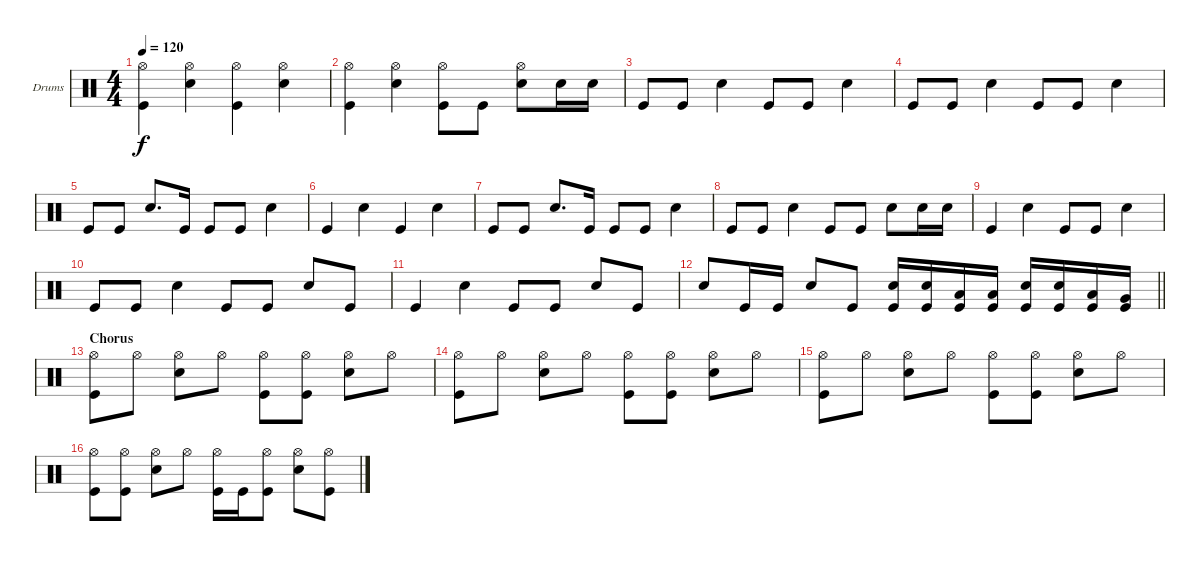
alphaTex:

\bracketExtendMode groupsimilarinstruments
\firstSystemTrackNameOrientation horizontal
\otherSystemsTrackNameOrientation horizontal
\track ("Drumkit" "Drums") {instrument percussion}
\staff {score}
\articulation defaults
\ts (4 4)
\tempo 120
\clef neutral
\ks c
("Kick (hit)" "Hi-Hat (open)").4{dy f} ("Snare (hit) 2" "Hi-Hat (open)").4 ("Kick (hit)" "Hi-Hat (open)").4 ("Snare (hit) 2" "Hi-Hat (open)").4 |
("Kick (hit)" "Hi-Hat (open)").4 ("Snare (hit) 2" "Hi-Hat (open)").4 ("Kick (hit)" "Hi-Hat (open)").8 "Kick (hit)".8 ("Snare (hit) 2" "Hi-Hat (open)").8 "Snare (hit) 2".16 "Snare (hit) 2".16 |
"Kick (hit)".8 "Kick (hit)".8 "Snare (hit) 2".4 "Kick (hit)".8 "Kick (hit)".8 "Snare (hit) 2".4 |
"Kick (hit)".8 "Kick (hit)".8 "Snare (hit) 2".4 "Kick (hit)".8 "Kick (hit)".8 "Snare (hit) 2".4 |
"Kick (hit)".8 "Kick (hit)".8 "Snare (hit) 2".8{d} "Kick (hit)".16 "Kick (hit)".8 "Kick (hit)".8 "Snare (hit) 2".4 |
"Kick (hit)".4 "Snare (hit) 2".4 "Kick (hit)".4 "Snare (hit) 2".4 |
"Kick (hit)".8 "Kick (hit)".8 "Snare (hit) 2".8{d} "Kick (hit)".16 "Kick (hit)".8 "Kick (hit)".8 "Snare (hit) 2".4 |
"Kick (hit)".8 "Kick (hit)".8 "Snare (hit) 2".4 "Kick (hit)".8 "Kick (hit)".8 "Snare (hit) 2".8 "Snare (hit) 2".16 "Snare (hit) 2".16 |
"Kick (hit)".4 "Snare (hit) 2".4 "Kick (hit)".8 "Kick (hit)".8 "Snare (hit) 2".4 |
"Kick (hit)".8 "Kick (hit)".8 "Snare (hit) 2".4 "Kick (hit)".8 "Kick (hit)".8 "Snare (hit) 2".8 "Kick (hit)".8 |
"Kick (hit)".4 "Snare (hit) 2".4 "Kick (hit)".8 "Kick (hit)".8 "Snare (hit) 2".8 "Kick (hit)".8 |
\barLineRight lightlight "Snare (hit) 2".8 "Kick (hit)".16 "Kick (hit)".16 "Snare (hit) 2".8 "Kick (hit)".8
("Kick (hit)" "Snare (hit) 2").16 ("Kick (hit)" "Snare (hit) 2").16 ("Kick (hit)" "Low Tom (hit)").16 ("Kick (hit)" "Low Tom (hit)").16 ("Kick (hit)" "Snare (hit) 2").16 ("Kick (hit)" "Snare (hit) 2").16 ("Kick (hit)" "Low Tom (hit)").16 ("Kick (hit)" "Very Low Tom (hit)").16 |
\section ("" "Chorus")
("Kick (hit)" "Hi-Hat (open)").8 "Hi-Hat (open)".8 ("Snare (hit) 2" "Hi-Hat (open)").8 "Hi-Hat (open)".8 ("Kick (hit)" "Hi-Hat (open)").8 ("Kick (hit)" "Hi-Hat (open)").8 ("Snare (hit) 2" "Hi-Hat (open)").8 "Hi-Hat (open)".8 |
("Kick (hit)" "Hi-Hat (open)").8 "Hi-Hat (open)".8 ("Snare (hit) 2" "Hi-Hat (open)").8 "Hi-Hat (open)".8 ("Kick (hit)" "Hi-Hat (open)").8 ("Kick (hit)" "Hi-Hat (open)").8 ("Snare (hit) 2" "Hi-Hat (open)").8 "Hi-Hat (open)".8 |
("Kick (hit)" "Hi-Hat (open)").8 "Hi-Hat (open)".8 ("Snare (hit) 2" "Hi-Hat (open)").8 "Hi-Hat (open)".8 ("Kick (hit)" "Hi-Hat (open)").8 ("Kick (hit)" "Hi-Hat (open)").8 ("Snare (hit) 2" "Hi-Hat (open)").8 "Hi-Hat (open)".8 |
("Kick (hit)" "Hi-Hat (open)").8 ("Kick (hit)" "Hi-Hat (open)").8 ("Snare (hit) 2" "Hi-Hat (open)").8 "Hi-Hat (open)".8 ("Kick (hit)" "Hi-Hat (open)").16 "Kick (hit)".16 ("Kick (hit)" "Hi-Hat (open)").8 ("Snare (hit) 2" "Hi-Hat (open)").8 ("Kick (hit)" "Hi-Hat (open)").8
